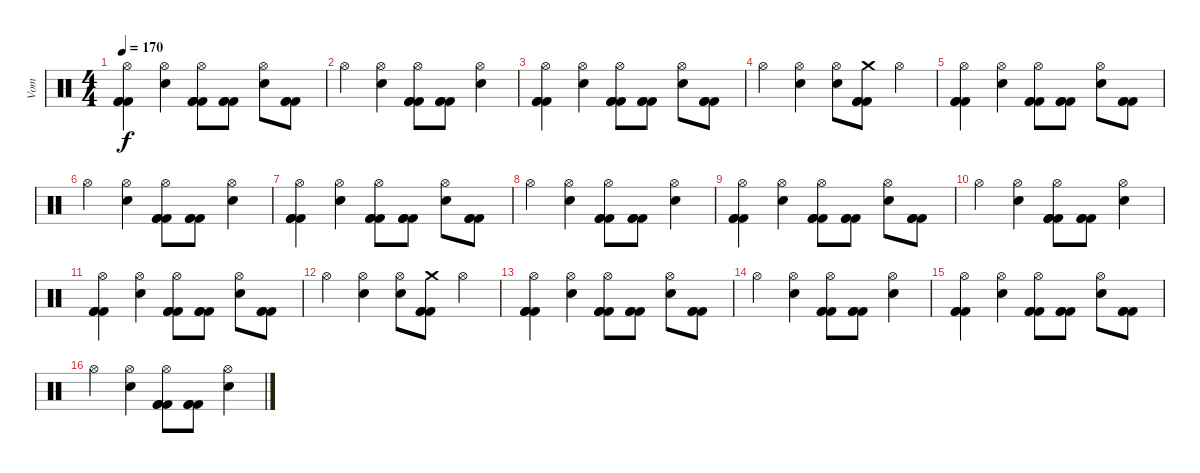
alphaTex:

\track ("Vom" "Vom") {instrument percussion}
\staff {score}
\articulation defaults
\ts (4 4)
\tempo 170
\clef neutral
\ks c
("Hi-Hat (open)" "Kick (hit) 2" "Kick (hit) 2" "Kick (hit) 2").4{dy f} ("Hi-Hat (open)" "Snare (hit) 2").4 ("Hi-Hat (open)" "Kick (hit) 2" "Kick (hit) 2" "Kick (hit) 2").8 ("Kick (hit) 2" "Kick (hit) 2" "Kick (hit) 2").8 ("Hi-Hat (open)" "Snare (hit) 2").8 ("Kick (hit) 2" "Kick (hit) 2" "Kick (hit) 2").8 |
"Hi-Hat (open)".4 ("Hi-Hat (open)" "Snare (hit) 2").4 ("Hi-Hat (open)" "Kick (hit) 2" "Kick (hit) 2" "Kick (hit) 2").8 ("Kick (hit) 2" "Kick (hit) 2" "Kick (hit) 2").8 ("Hi-Hat (open)" "Snare (hit) 2").4 |
("Hi-Hat (open)" "Kick (hit) 2" "Kick (hit) 2" "Kick (hit) 2").4 ("Hi-Hat (open)" "Snare (hit) 2").4 ("Hi-Hat (open)" "Kick (hit) 2" "Kick (hit) 2" "Kick (hit) 2").8 ("Kick (hit) 2" "Kick (hit) 2" "Kick (hit) 2").8 ("Hi-Hat (open)" "Snare (hit) 2").8 ("Kick (hit) 2" "Kick (hit) 2" "Kick (hit) 2").8 |
"Hi-Hat (open)".4 ("Hi-Hat (open)" "Snare (hit) 2").4 ("Hi-Hat (open)" "Snare (hit) 2").8 ("Crash medium (hit)" "Kick (hit) 2" "Kick (hit) 2" "Kick (hit) 2").8 "Hi-Hat (open)".4 |
("Hi-Hat (open)" "Kick (hit) 2" "Kick (hit) 2" "Kick (hit) 2").4 ("Hi-Hat (open)" "Snare (hit) 2").4 ("Hi-Hat (open)" "Kick (hit) 2" "Kick (hit) 2" "Kick (hit) 2").8 ("Kick (hit) 2" "Kick (hit) 2" "Kick (hit) 2").8 ("Hi-Hat (open)" "Snare (hit) 2").8 ("Kick (hit) 2" "Kick (hit) 2" "Kick (hit) 2").8 |
"Hi-Hat (open)".4 ("Hi-Hat (open)" "Snare (hit) 2").4 ("Hi-Hat (open)" "Kick (hit) 2" "Kick (hit) 2" "Kick (hit) 2").8 ("Kick (hit) 2" "Kick (hit) 2" "Kick (hit) 2").8 ("Hi-Hat (open)" "Snare (hit) 2").4 |
("Hi-Hat (open)" "Kick (hit) 2" "Kick (hit) 2" "Kick (hit) 2").4 ("Hi-Hat (open)" "Snare (hit) 2").4 ("Hi-Hat (open)" "Kick (hit) 2" "Kick (hit) 2" "Kick (hit) 2").8 ("Kick (hit) 2" "Kick (hit) 2" "Kick (hit) 2").8 ("Hi-Hat (open)" "Snare (hit) 2").8 ("Kick (hit) 2" "Kick (hit) 2" "Kick (hit) 2").8 |
"Hi-Hat (open)".4 ("Hi-Hat (open)" "Snare (hit) 2").4 ("Hi-Hat (open)" "Kick (hit) 2" "Kick (hit) 2" "Kick (hit) 2").8 ("Kick (hit) 2" "Kick (hit) 2" "Kick (hit) 2").8 ("Hi-Hat (open)" "Snare (hit) 2").4 |
("Hi-Hat (open)" "Kick (hit) 2" "Kick (hit) 2" "Kick (hit) 2").4 ("Hi-Hat (open)" "Snare (hit) 2").4 ("Hi-Hat (open)" "Kick (hit) 2" "Kick (hit) 2" "Kick (hit) 2").8 ("Kick (hit) 2" "Kick (hit) 2" "Kick (hit) 2").8 ("Hi-Hat (open)" "Snare (hit) 2").8 ("Kick (hit) 2" "Kick (hit) 2" "Kick (hit) 2").8 |
"Hi-Hat (open)".4 ("Hi-Hat (open)" "Snare (hit) 2").4 ("Hi-Hat (open)" "Kick (hit) 2" "Kick (hit) 2" "Kick (hit) 2").8 ("Kick (hit) 2" "Kick (hit) 2" "Kick (hit) 2").8 ("Hi-Hat (open)" "Snare (hit) 2").4 |
("Hi-Hat (open)" "Kick (hit) 2" "Kick (hit) 2" "Kick (hit) 2").4 ("Hi-Hat (open)" "Snare (hit) 2").4 ("Hi-Hat (open)" "Kick (hit) 2" "Kick (hit) 2" "Kick (hit) 2").8 ("Kick (hit) 2" "Kick (hit) 2" "Kick (hit) 2").8 ("Hi-Hat (open)" "Snare (hit) 2").8 ("Kick (hit) 2" "Kick (hit) 2" "Kick (hit) 2").8 |
"Hi-Hat (open)".4 ("Hi-Hat (open)" "Snare (hit) 2").4 ("Hi-Hat (open)" "Snare (hit) 2").8 ("Crash medium (hit)" "Kick (hit) 2" "Kick (hit) 2" "Kick (hit) 2").8 "Hi-Hat (open)".4 |
("Hi-Hat (open)" "Kick (hit) 2" "Kick (hit) 2" "Kick (hit) 2").4 ("Hi-Hat (open)" "Snare (hit) 2").4 ("Hi-Hat (open)" "Kick (hit) 2" "Kick (hit) 2" "Kick (hit) 2").8 ("Kick (hit) 2" "Kick (hit) 2" "Kick (hit) 2").8 ("Hi-Hat (open)" "Snare (hit) 2").8 ("Kick (hit) 2" "Kick (hit) 2" "Kick (hit) 2").8 |
"Hi-Hat (open)".4 ("Hi-Hat (open)" "Snare (hit) 2").4 ("Hi-Hat (open)" "Kick (hit) 2" "Kick (hit) 2" "Kick (hit) 2").8 ("Kick (hit) 2" "Kick (hit) 2" "Kick (hit) 2").8 ("Hi-Hat (open)" "Snare (hit) 2").4 |
("Hi-Hat (open)" "Kick (hit) 2" "Kick (hit) 2" "Kick (hit) 2").4 ("Hi-Hat (open)" "Snare (hit) 2").4 ("Hi-Hat (open)" "Kick (hit) 2" "Kick (hit) 2" "Kick (hit) 2").8 ("Kick (hit) 2" "Kick (hit) 2" "Kick (hit) 2").8 ("Hi-Hat (open)" "Snare (hit) 2").8 ("Kick (hit) 2" "Kick (hit) 2" "Kick (hit) 2").8 |
"Hi-Hat (open)".4 ("Hi-Hat (open)" "Snare (hit) 2").4 ("Hi-Hat (open)" "Kick (hit) 2" "Kick (hit) 2" "Kick (hit) 2").8 ("Kick (hit) 2" "Kick (hit) 2" "Kick (hit) 2").8 ("Hi-Hat (open)" "Snare (hit) 2").4
